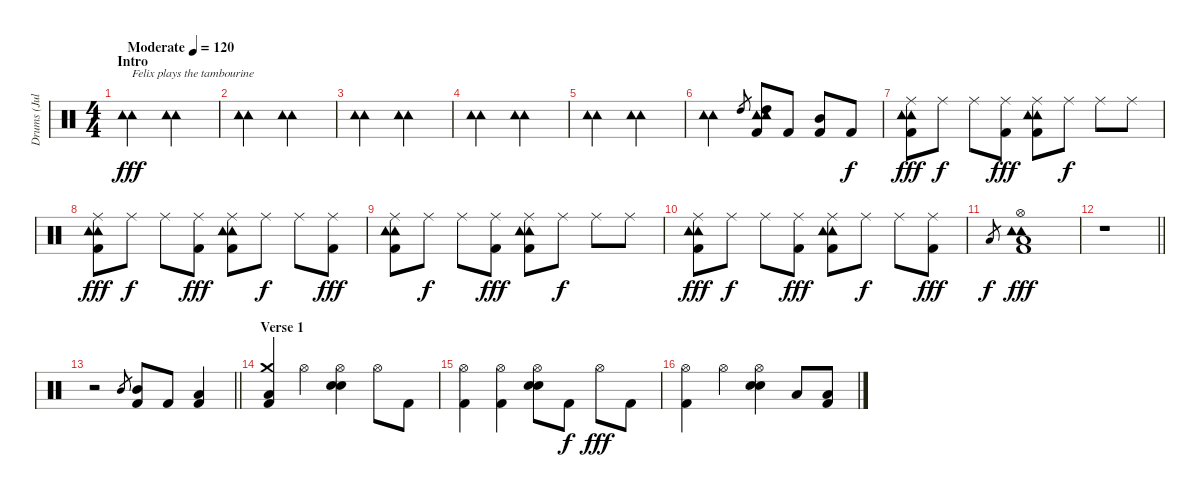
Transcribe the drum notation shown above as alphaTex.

\track ("Drums (Julian Del Rosario)" "Drums (Jul") {instrument percussion}
\staff {score}
\articulation defaults
\ts (4 4)
\section ("" "Intro")
\tempo (120 "Moderate")
\clef neutral
\ks c
("Tambourine (hit)" "Tambourine (hit)").2{txt "Felix plays the tambourine" dy fff} ("Tambourine (hit)" "Tambourine (hit)").2 |
("Tambourine (hit)" "Tambourine (hit)").2 ("Tambourine (hit)" "Tambourine (hit)").2 |
("Tambourine (hit)" "Tambourine (hit)").2 ("Tambourine (hit)" "Tambourine (hit)").2 |
("Tambourine (hit)" "Tambourine (hit)").2 ("Tambourine (hit)" "Tambourine (hit)").2 |
("Tambourine (hit)" "Tambourine (hit)").2 ("Tambourine (hit)" "Tambourine (hit)").2 |
("Tambourine (hit)" "Tambourine (hit)").2 "High Tom (hit)".8{gr} ("Tambourine (hit)" "Tambourine (hit)" "High Tom (hit)" "Kick (hit) 2").8{volume 8} "Kick (hit) 2".8 ("Mid Tom (hit)" "Kick (hit) 2").8 "Kick (hit) 2".8{dy f} |
("Tambourine (hit)" "Ride (middle)" "Tambourine (hit)" "Kick (hit) 2").8{dy fff volume 6} "Ride (middle)".8{dy f} "Ride (middle)".8 ("Ride (middle)" "Kick (hit) 2").8{dy fff} ("Tambourine (hit)" "Ride (middle)" "Tambourine (hit)" "Kick (hit) 2").8 "Ride (middle)".8{dy f} "Ride (middle)".8 "Ride (middle)".8 |
("Tambourine (hit)" "Ride (middle)" "Tambourine (hit)" "Kick (hit) 2").8{dy fff} "Ride (middle)".8{dy f} "Ride (middle)".8 ("Ride (middle)" "Kick (hit) 2").8{dy fff} ("Tambourine (hit)" "Ride (middle)" "Tambourine (hit)" "Kick (hit) 2").8 "Ride (middle)".8{dy f} "Ride (middle)".8 ("Ride (middle)" "Kick (hit) 2").8{dy fff} |
("Tambourine (hit)" "Ride (middle)" "Tambourine (hit)" "Kick (hit) 2").8 "Ride (middle)".8{dy f} "Ride (middle)".8 ("Ride (middle)" "Kick (hit) 2").8{dy fff} ("Tambourine (hit)" "Ride (middle)" "Tambourine (hit)" "Kick (hit) 2").8 "Ride (middle)".8{dy f} "Ride (middle)".8 "Ride (middle)".8 |
("Tambourine (hit)" "Ride (middle)" "Tambourine (hit)" "Kick (hit) 2").8{dy fff} "Ride (middle)".8{dy f} "Ride (middle)".8 ("Ride (middle)" "Kick (hit) 2").8{dy fff} ("Tambourine (hit)" "Ride (middle)" "Tambourine (hit)" "Kick (hit) 2").8 "Ride (middle)".8{dy f} "Ride (middle)".8 ("Ride (middle)" "Kick (hit) 2").8{dy fff} |
"Low Tom (hit)".8{gr dy f} ("Tambourine (hit)" "Hi-Hat (open)" "Low Tom (hit)" "Tambourine (hit)" "Kick (hit) 2").1{dy fff} |
\barLineRight lightlight
r.1 |
\barLineRight lightlight
r.2 "Mid Tom (hit)".8{gr} ("Mid Tom (hit)" "Kick (hit) 2").8{volume 8} "Kick (hit) 2".8 ("Low Tom (hit)" "Kick (hit) 2").4 |
\section ("" "Verse 1")
("Crash medium (hit)" "Low Floor Tom (hit)" "Kick (hit) 2").4{volume 6} "Hi-Hat (open)".4 ("Hi-Hat (open)" "Snare (hit) 2" "Electric Snare (hit)").4 "Hi-Hat (open)".8 "Kick (hit) 2".8 |
("Hi-Hat (open)" "Kick (hit) 2").4 ("Hi-Hat (open)" "Kick (hit) 2").4 ("Hi-Hat (open)" "Snare (hit) 2" "Electric Snare (hit)").8 "Kick (hit) 2".8{dy f} "Hi-Hat (open)".8{dy fff} "Kick (hit) 2".8 |
("Hi-Hat (open)" "Kick (hit) 2").4 "Hi-Hat (open)".4 ("Hi-Hat (open)" "Snare (hit) 2" "Electric Snare (hit)").4 "Low Floor Tom (hit)".8 ("Low Floor Tom (hit)" "Kick (hit) 2").8
